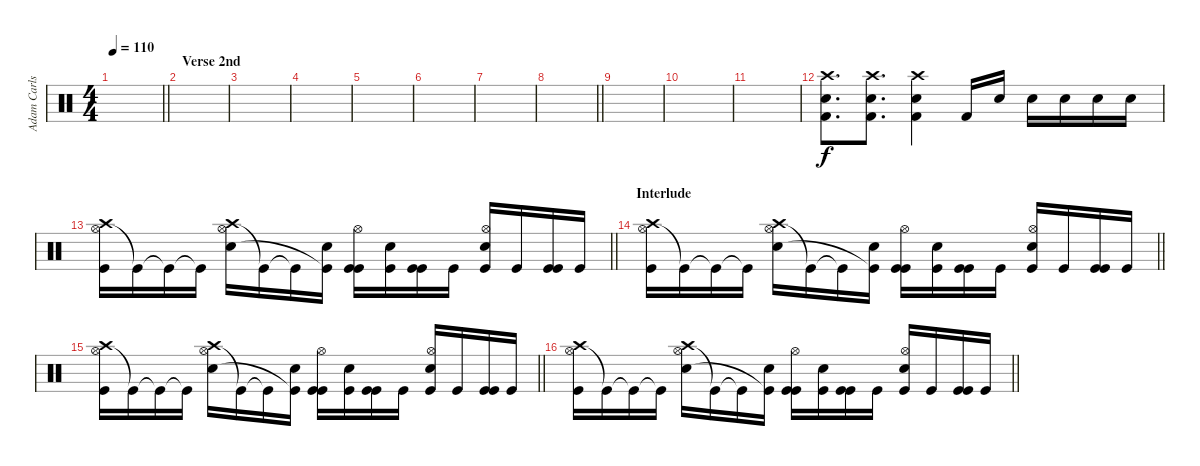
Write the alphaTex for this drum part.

\track ("Adam Carlson(Natural Drums)" "Adam Carls") {instrument percussion}
\staff {score}
\articulation defaults
\ts (4 4)
\tempo 110
\clef neutral
\barLineRight lightlight
\ks c
|
\section ("" "Verse 2nd")
|
|
|
|
|
|
\barLineRight lightlight
|
|
|
|
("Crash high (hit)" "Kick (hit) 2" "Electric Snare (hit)").8{d} ("Crash high (hit)" "Kick (hit) 2" "Electric Snare (hit)").8{d} ("Crash high (hit)" "Kick (hit) 2" "Electric Snare (hit)").4 "Kick (hit) 2".16 "Electric Snare (hit)".16 "Electric Snare (hit)".16 "Electric Snare (hit)".16 "Electric Snare (hit)".16 "Electric Snare (hit)".16 |
\barLineRight lightlight
("Hi-Hat (open)" "Kick (hit)" "Crash high (hit)").16 "Kick (hit)"{t}.16 "Kick (hit)"{t}.16 "Kick (hit)"{t}.16 ("Hi-Hat (open)" "Electric Snare (hit)" "Crash high (hit)").16 "Kick (hit)"{t}.16 "Kick (hit)"{t}.16 ("Electric Snare (hit)" "Kick (hit)"{t}).16 ("Hi-Hat (open)" "Kick (hit)" "Kick (hit)").16 ("Electric Snare (hit)" "Kick (hit)").16 ("Kick (hit)" "Kick (hit)").16 "Kick (hit)".16 ("Hi-Hat (open)" "Electric Snare (hit)" "Kick (hit)").16 "Kick (hit)".16 ("Kick (hit)" "Kick (hit)").16 "Kick (hit)".16 |
\section ("" "Interlude")
\barLineRight lightlight
("Hi-Hat (open)" "Kick (hit)" "Crash high (hit)").16 "Kick (hit)"{t}.16 "Kick (hit)"{t}.16 "Kick (hit)"{t}.16 ("Hi-Hat (open)" "Electric Snare (hit)" "Crash high (hit)").16 "Kick (hit)"{t}.16 "Kick (hit)"{t}.16 ("Electric Snare (hit)" "Kick (hit)"{t}).16 ("Hi-Hat (open)" "Kick (hit)" "Kick (hit)").16 ("Electric Snare (hit)" "Kick (hit)").16 ("Kick (hit)" "Kick (hit)").16 "Kick (hit)".16 ("Hi-Hat (open)" "Electric Snare (hit)" "Kick (hit)").16 "Kick (hit)".16 ("Kick (hit)" "Kick (hit)").16 "Kick (hit)".16 |
\barLineRight lightlight
("Hi-Hat (open)" "Kick (hit)" "Crash high (hit)").16 "Kick (hit)"{t}.16 "Kick (hit)"{t}.16 "Kick (hit)"{t}.16 ("Hi-Hat (open)" "Electric Snare (hit)" "Crash high (hit)").16 "Kick (hit)"{t}.16 "Kick (hit)"{t}.16 ("Electric Snare (hit)" "Kick (hit)"{t}).16 ("Hi-Hat (open)" "Kick (hit)" "Kick (hit)").16 ("Electric Snare (hit)" "Kick (hit)").16 ("Kick (hit)" "Kick (hit)").16 "Kick (hit)".16 ("Hi-Hat (open)" "Electric Snare (hit)" "Kick (hit)").16 "Kick (hit)".16 ("Kick (hit)" "Kick (hit)").16 "Kick (hit)".16 |
\barLineRight lightlight
("Hi-Hat (open)" "Kick (hit)" "Crash high (hit)").16 "Kick (hit)"{t}.16 "Kick (hit)"{t}.16 "Kick (hit)"{t}.16 ("Hi-Hat (open)" "Electric Snare (hit)" "Crash high (hit)").16 "Kick (hit)"{t}.16 "Kick (hit)"{t}.16 ("Electric Snare (hit)" "Kick (hit)"{t}).16 ("Hi-Hat (open)" "Kick (hit)" "Kick (hit)").16 ("Electric Snare (hit)" "Kick (hit)").16 ("Kick (hit)" "Kick (hit)").16 "Kick (hit)".16 ("Hi-Hat (open)" "Electric Snare (hit)" "Kick (hit)").16 "Kick (hit)".16 ("Kick (hit)" "Kick (hit)").16 "Kick (hit)".16
